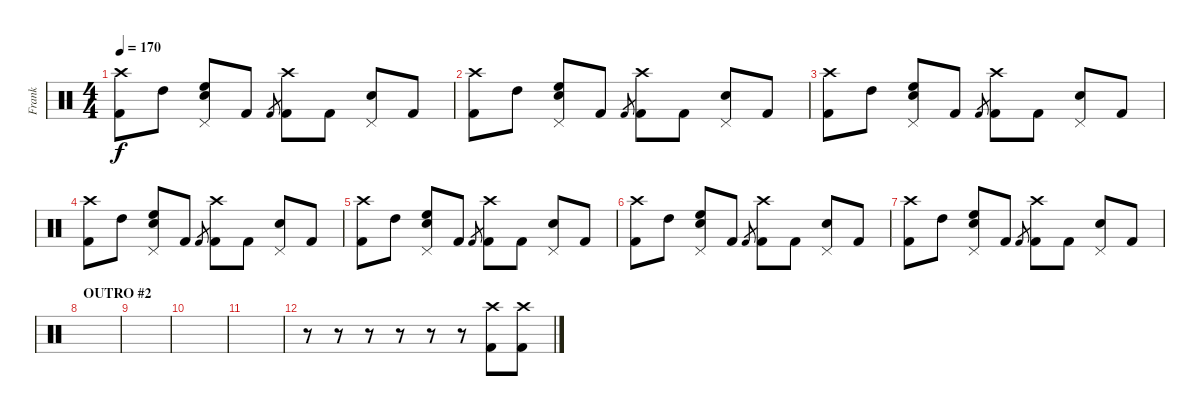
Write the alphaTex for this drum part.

\track ("Frank" "Frank") {instrument percussion}
\staff {score}
\articulation defaults
\ts (4 4)
\tempo 170
\clef neutral
\ks c
("Crash high (hit)" "Kick (hit) 2").8{dy f} "High Tom (hit)".8 ("Pedal Hi-Hat (hit)" "High Floor Tom (hit)" "Snare (hit) 2").8 "Kick (hit) 2".8 "Kick (hit) 2".8{gr} ("Crash high (hit)" "Kick (hit) 2").8 "Kick (hit) 2".8 ("Pedal Hi-Hat (hit)" "Snare (hit) 2").8 "Kick (hit) 2".8 |
("Crash high (hit)" "Kick (hit) 2").8 "High Tom (hit)".8 ("Pedal Hi-Hat (hit)" "High Floor Tom (hit)" "Snare (hit) 2").8 "Kick (hit) 2".8 "Kick (hit) 2".8{gr} ("Crash high (hit)" "Kick (hit) 2").8 "Kick (hit) 2".8 ("Pedal Hi-Hat (hit)" "Snare (hit) 2").8 "Kick (hit) 2".8 |
("Crash high (hit)" "Kick (hit) 2").8 "High Tom (hit)".8 ("Pedal Hi-Hat (hit)" "High Floor Tom (hit)" "Snare (hit) 2").8 "Kick (hit) 2".8 "Kick (hit) 2".8{gr} ("Crash high (hit)" "Kick (hit) 2").8 "Kick (hit) 2".8 ("Pedal Hi-Hat (hit)" "Snare (hit) 2").8 "Kick (hit) 2".8 |
("Crash high (hit)" "Kick (hit) 2").8 "High Tom (hit)".8 ("Pedal Hi-Hat (hit)" "High Floor Tom (hit)" "Snare (hit) 2").8 "Kick (hit) 2".8 "Kick (hit) 2".8{gr} ("Crash high (hit)" "Kick (hit) 2").8 "Kick (hit) 2".8 ("Pedal Hi-Hat (hit)" "Snare (hit) 2").8 "Kick (hit) 2".8 |
("Crash high (hit)" "Kick (hit) 2").8 "High Tom (hit)".8 ("Pedal Hi-Hat (hit)" "High Floor Tom (hit)" "Snare (hit) 2").8 "Kick (hit) 2".8 "Kick (hit) 2".8{gr} ("Crash high (hit)" "Kick (hit) 2").8 "Kick (hit) 2".8 ("Pedal Hi-Hat (hit)" "Snare (hit) 2").8 "Kick (hit) 2".8 |
("Crash high (hit)" "Kick (hit) 2").8 "High Tom (hit)".8 ("Pedal Hi-Hat (hit)" "High Floor Tom (hit)" "Snare (hit) 2").8 "Kick (hit) 2".8 "Kick (hit) 2".8{gr} ("Crash high (hit)" "Kick (hit) 2").8 "Kick (hit) 2".8 ("Pedal Hi-Hat (hit)" "Snare (hit) 2").8 "Kick (hit) 2".8 |
("Crash high (hit)" "Kick (hit) 2").8 "High Tom (hit)".8 ("Pedal Hi-Hat (hit)" "High Floor Tom (hit)" "Snare (hit) 2").8 "Kick (hit) 2".8 "Kick (hit) 2".8{gr} ("Crash high (hit)" "Kick (hit) 2").8 "Kick (hit) 2".8 ("Pedal Hi-Hat (hit)" "Snare (hit) 2").8 "Kick (hit) 2".8 |
\section ("" "OUTRO #2")
|
|
|
|
r.8 r.8 r.8 r.8 r.8 r.8 ("Crash high (hit)" "Kick (hit) 2").8 ("Crash high (hit)" "Kick (hit) 2").8
